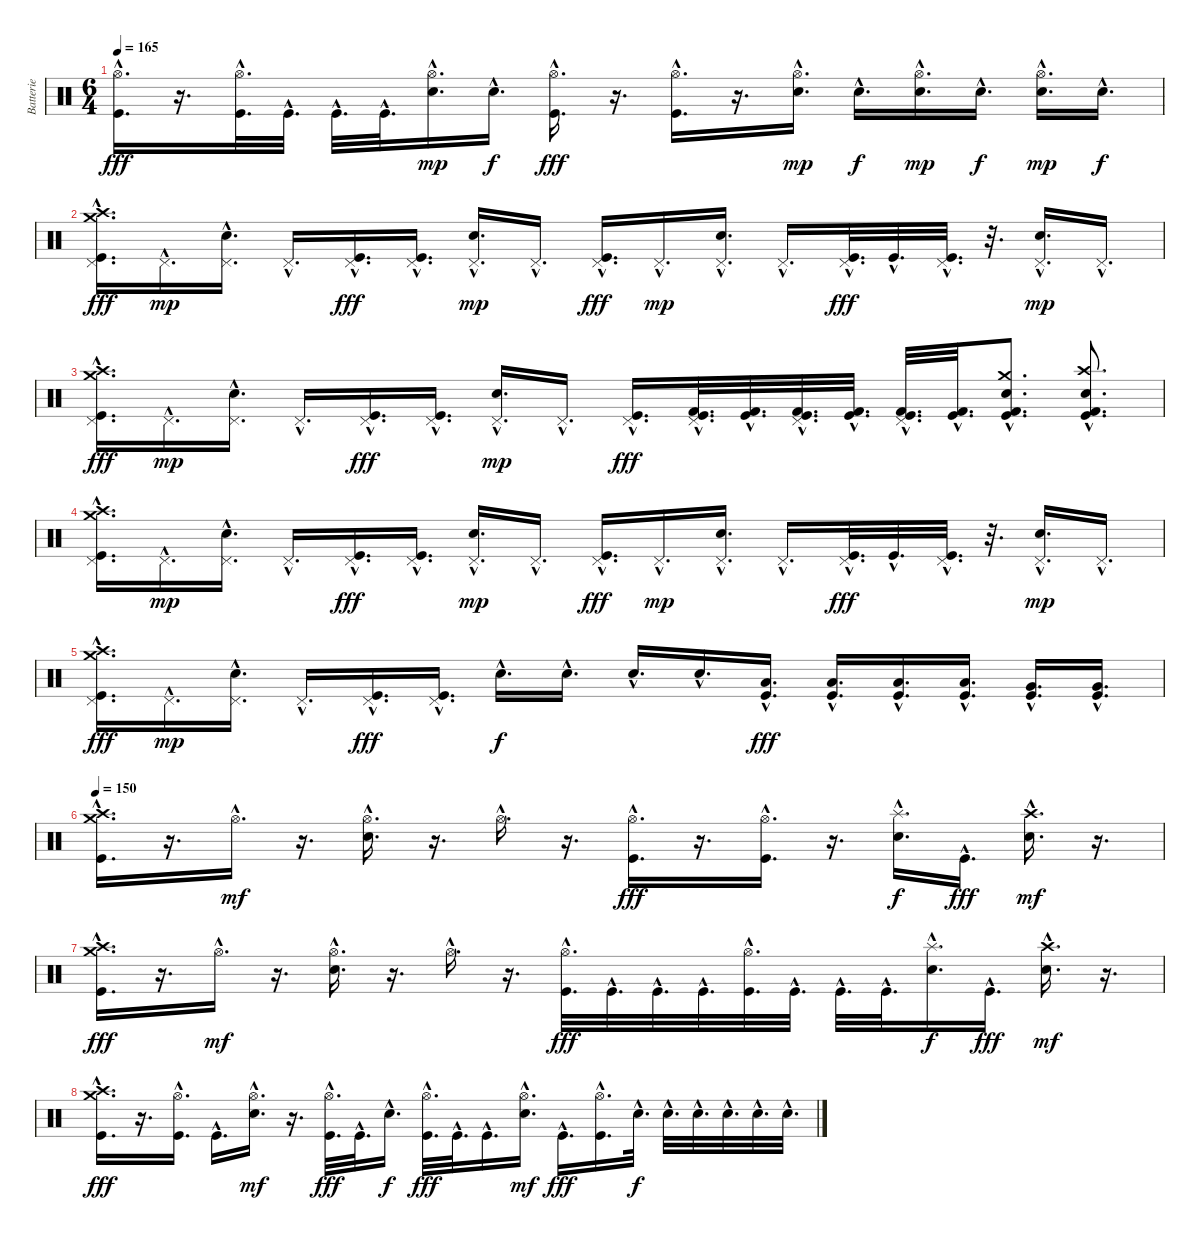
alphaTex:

\track ("Batterie" "Batterie") {instrument percussion}
\staff {score}
\articulation defaults
\ts (6 4)
\tempo 165
\clef neutral
\ks c
("Hi-Hat (open)"{hac} "Kick (hit)"{hac}).16{d dy fff} r.16{d} ("Hi-Hat (open)"{hac} "Kick (hit)"{hac}).32{d} "Kick (hit)"{hac}.32{d} "Kick (hit)"{hac}.32{d} "Kick (hit)"{hac}.32{d} ("Hi-Hat (open)"{hac} "Electric Snare (hit)"{hac}).16{d dy mp} "Electric Snare (hit)"{hac}.16{d dy f} ("Hi-Hat (open)"{hac} "Kick (hit)"{hac}).16{d dy fff} r.16{d} ("Hi-Hat (open)"{hac} "Kick (hit)"{hac}).16{d} r.16{d} ("Hi-Hat (open)"{hac} "Electric Snare (hit)"{hac}).16{d dy mp} "Electric Snare (hit)"{hac}.16{d dy f} ("Hi-Hat (open)"{hac} "Electric Snare (hit)"{hac}).16{d dy mp} "Electric Snare (hit)"{hac}.16{d dy f} ("Hi-Hat (open)"{hac} "Electric Snare (hit)"{hac}).16{d dy mp} "Electric Snare (hit)"{hac}.16{d dy f} |
("Pedal Hi-Hat (hit)"{hac} "Crash medium (hit)"{hac} "Crash high (hit)"{hac} "Kick (hit)"{hac}).16{d dy fff} "Pedal Hi-Hat (hit)"{hac}.16{d dy mp} ("Pedal Hi-Hat (hit)"{hac} "Electric Snare (hit)"{hac}).16{d} "Pedal Hi-Hat (hit)"{hac}.16{d} ("Pedal Hi-Hat (hit)"{hac} "Kick (hit)"{hac}).16{d dy fff} ("Pedal Hi-Hat (hit)"{hac} "Kick (hit)"{hac}).16{d} ("Pedal Hi-Hat (hit)"{hac} "Electric Snare (hit)"{hac}).16{d dy mp} "Pedal Hi-Hat (hit)"{hac}.16{d} ("Pedal Hi-Hat (hit)"{hac} "Kick (hit)"{hac}).16{d dy fff} "Pedal Hi-Hat (hit)"{hac}.16{d dy mp} ("Pedal Hi-Hat (hit)"{hac} "Electric Snare (hit)"{hac}).16{d} "Pedal Hi-Hat (hit)"{hac}.16{d} ("Pedal Hi-Hat (hit)"{hac} "Kick (hit)"{hac}).32{d dy fff} "Kick (hit)"{hac}.32{d} ("Pedal Hi-Hat (hit)"{hac} "Kick (hit)"{hac}).32{d} r.32{d} ("Pedal Hi-Hat (hit)"{hac} "Electric Snare (hit)"{hac}).16{d dy mp} "Pedal Hi-Hat (hit)"{hac}.16{d} |
("Pedal Hi-Hat (hit)"{hac} "Crash medium (hit)"{hac} "Crash high (hit)"{hac} "Kick (hit)"{hac}).16{d dy fff} "Pedal Hi-Hat (hit)"{hac}.16{d dy mp} ("Pedal Hi-Hat (hit)"{hac} "Electric Snare (hit)"{hac}).16{d} "Pedal Hi-Hat (hit)"{hac}.16{d} ("Pedal Hi-Hat (hit)"{hac} "Kick (hit)"{hac}).16{d dy fff} ("Pedal Hi-Hat (hit)"{hac} "Kick (hit)"{hac}).16{d} ("Pedal Hi-Hat (hit)"{hac} "Electric Snare (hit)"{hac}).16{d dy mp} "Pedal Hi-Hat (hit)"{hac}.16{d} ("Pedal Hi-Hat (hit)"{hac} "Kick (hit)"{hac}).16{d dy fff} ("Pedal Hi-Hat (hit)"{hac} "Kick (hit) 2"{hac} "Kick (hit)"{hac}).32{d} ("Kick (hit) 2"{hac} "Kick (hit)"{hac}).32{d} ("Pedal Hi-Hat (hit)"{hac} "Kick (hit) 2"{hac} "Kick (hit)"{hac}).32{d} ("Kick (hit) 2"{hac} "Kick (hit)"{hac}).32{d} ("Pedal Hi-Hat (hit)"{hac} "Kick (hit) 2"{hac} "Kick (hit)"{hac}).32{d} ("Kick (hit) 2"{hac} "Kick (hit)"{hac}).32{d} ("Crash medium (hit)"{hac} "Electric Snare (hit)"{hac} "Kick (hit) 2"{hac} "Kick (hit)"{hac}).8{d} ("Crash high (hit)"{hac} "Electric Snare (hit)"{hac} "Kick (hit) 2"{hac} "Kick (hit)"{hac}).8{d} |
("Pedal Hi-Hat (hit)"{hac} "Crash medium (hit)"{hac} "Crash high (hit)"{hac} "Kick (hit)"{hac}).16{d} "Pedal Hi-Hat (hit)"{hac}.16{d dy mp} ("Pedal Hi-Hat (hit)"{hac} "Electric Snare (hit)"{hac}).16{d} "Pedal Hi-Hat (hit)"{hac}.16{d} ("Pedal Hi-Hat (hit)"{hac} "Kick (hit)"{hac}).16{d dy fff} ("Pedal Hi-Hat (hit)"{hac} "Kick (hit)"{hac}).16{d} ("Pedal Hi-Hat (hit)"{hac} "Electric Snare (hit)"{hac}).16{d dy mp} "Pedal Hi-Hat (hit)"{hac}.16{d} ("Pedal Hi-Hat (hit)"{hac} "Kick (hit)"{hac}).16{d dy fff} "Pedal Hi-Hat (hit)"{hac}.16{d dy mp} ("Pedal Hi-Hat (hit)"{hac} "Electric Snare (hit)"{hac}).16{d} "Pedal Hi-Hat (hit)"{hac}.16{d} ("Pedal Hi-Hat (hit)"{hac} "Kick (hit)"{hac}).32{d dy fff} "Kick (hit)"{hac}.32{d} ("Pedal Hi-Hat (hit)"{hac} "Kick (hit)"{hac}).32{d} r.32{d} ("Pedal Hi-Hat (hit)"{hac} "Electric Snare (hit)"{hac}).16{d dy mp} "Pedal Hi-Hat (hit)"{hac}.16{d} |
("Pedal Hi-Hat (hit)"{hac} "Crash medium (hit)"{hac} "Crash high (hit)"{hac} "Kick (hit)"{hac}).16{d dy fff} "Pedal Hi-Hat (hit)"{hac}.16{d dy mp} ("Pedal Hi-Hat (hit)"{hac} "Electric Snare (hit)"{hac}).16{d} "Pedal Hi-Hat (hit)"{hac}.16{d} ("Pedal Hi-Hat (hit)"{hac} "Kick (hit)"{hac}).16{d dy fff} ("Pedal Hi-Hat (hit)"{hac} "Kick (hit)"{hac}).16{d} "Electric Snare (hit)"{hac}.16{d dy f} "Electric Snare (hit)"{hac}.16{d} "Electric Snare (hit)"{hac}.16{d} "Electric Snare (hit)"{hac}.16{d} ("Low Floor Tom (hit)"{hac} "Kick (hit)"{hac}).16{d dy fff} ("Low Floor Tom (hit)"{hac} "Kick (hit)"{hac}).16{d} ("Low Tom (hit)"{hac} "Kick (hit)"{hac}).16{d} ("Low Tom (hit)"{hac} "Kick (hit)"{hac}).16{d} ("Very Low Tom (hit)"{hac} "Kick (hit)"{hac}).16{d} ("Very Low Tom (hit)"{hac} "Kick (hit)"{hac}).16{d} |
\tempo 150
("Crash medium (hit)"{hac} "Crash high (hit)"{hac} "Kick (hit)"{hac}).16{d} r.16{d} "Hi-Hat (open)"{hac}.16{d dy mf} r.16{d} ("Hi-Hat (open)"{hac} "Electric Snare (hit)"{hac}).16{d} r.16{d} "Hi-Hat (open)"{hac}.16{d} r.16{d} ("Hi-Hat (open)"{hac} "Kick (hit)"{hac}).16{d dy fff} r.16{d} ("Hi-Hat (open)"{hac} "Kick (hit)"{hac}).16{d} r.16{d} ("Splash (hit)"{hac} "Electric Snare (hit)"{hac}).16{d dy f} "Kick (hit)"{hac}.16{d dy fff} ("Crash high (hit)"{hac} "Electric Snare (hit)"{hac}).16{d dy mf} r.16{d} |
("Crash medium (hit)"{hac} "Crash high (hit)"{hac} "Kick (hit)"{hac}).16{d dy fff} r.16{d} "Hi-Hat (open)"{hac}.16{d dy mf} r.16{d} ("Hi-Hat (open)"{hac} "Electric Snare (hit)"{hac}).16{d} r.16{d} "Hi-Hat (open)"{hac}.16{d} r.16{d} ("Hi-Hat (open)"{hac} "Kick (hit)"{hac}).32{d dy fff} "Kick (hit)"{hac}.32{d} "Kick (hit)"{hac}.32{d} "Kick (hit)"{hac}.32{d} ("Hi-Hat (open)"{hac} "Kick (hit)"{hac}).32{d} "Kick (hit)"{hac}.32{d} "Kick (hit)"{hac}.32{d} "Kick (hit)"{hac}.32{d} ("Splash (hit)"{hac} "Electric Snare (hit)"{hac}).16{d dy f} "Kick (hit)"{hac}.16{d dy fff} ("Crash high (hit)"{hac} "Electric Snare (hit)"{hac}).16{d dy mf} r.16{d} |
("Crash medium (hit)"{hac} "Crash high (hit)"{hac} "Kick (hit)"{hac}).16{d dy fff} r.16{d} ("Hi-Hat (open)"{hac} "Kick (hit)"{hac}).16{d} "Kick (hit)"{hac}.16{d} ("Hi-Hat (open)"{hac} "Electric Snare (hit)"{hac}).16{d dy mf} r.16{d} ("Hi-Hat (open)"{hac} "Kick (hit)"{hac}).32{d dy fff} "Kick (hit)"{hac}.32{d} "Electric Snare (hit)"{hac}.16{d dy f} ("Hi-Hat (open)"{hac} "Kick (hit)"{hac}).32{d dy fff} "Kick (hit)"{hac}.32{d} "Kick (hit)"{hac}.16{d} ("Hi-Hat (open)"{hac} "Electric Snare (hit)"{hac}).16{d dy mf} "Kick (hit)"{hac}.16{d dy fff} ("Hi-Hat (open)"{hac} "Kick (hit)"{hac}).16{d} "Electric Snare (hit)"{hac}.32{d dy f} "Electric Snare (hit)"{hac}.32{d} "Electric Snare (hit)"{hac}.32{d} "Electric Snare (hit)"{hac}.32{d} "Electric Snare (hit)"{hac}.32{d} "Electric Snare (hit)"{hac}.32{d}
